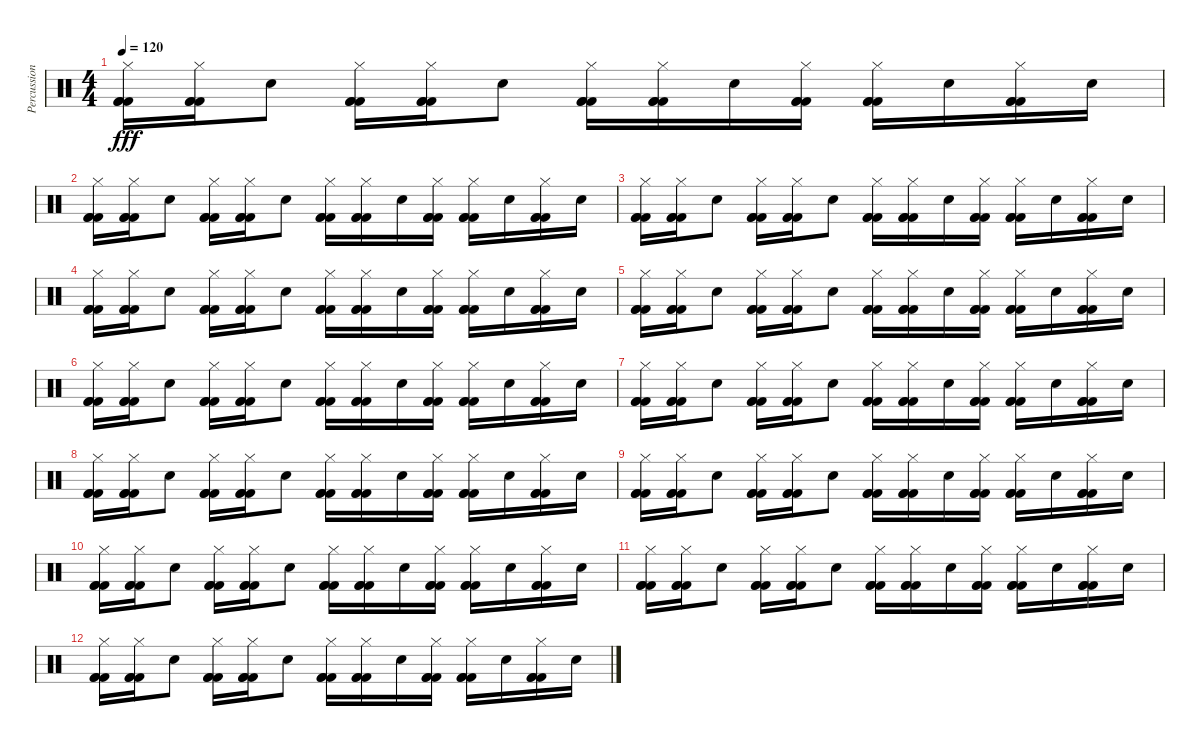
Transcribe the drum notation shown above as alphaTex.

\track ("Percussion" "Percussion") {instrument percussion}
\staff {score}
\articulation defaults
\ts (4 4)
\tempo 120
\clef neutral
\ks c
("Kick (hit) 2" "Kick (hit) 2" "Hi-Hat (closed)" "Kick (hit) 2").16{dy fff} ("Kick (hit) 2" "Kick (hit) 2" "Hi-Hat (closed)" "Kick (hit) 2").16 "Snare (hit) 2".8 ("Kick (hit) 2" "Kick (hit) 2" "Hi-Hat (closed)" "Kick (hit) 2").16 ("Kick (hit) 2" "Kick (hit) 2" "Hi-Hat (closed)" "Kick (hit) 2").16 "Snare (hit) 2".8 ("Kick (hit) 2" "Kick (hit) 2" "Hi-Hat (closed)" "Kick (hit) 2").16 ("Kick (hit) 2" "Kick (hit) 2" "Hi-Hat (closed)" "Kick (hit) 2").16 "Snare (hit) 2".16 ("Kick (hit) 2" "Kick (hit) 2" "Hi-Hat (closed)" "Kick (hit) 2").16 ("Kick (hit) 2" "Kick (hit) 2" "Hi-Hat (closed)" "Kick (hit) 2").16 "Snare (hit) 2".16 ("Kick (hit) 2" "Kick (hit) 2" "Hi-Hat (closed)" "Kick (hit) 2").16 "Snare (hit) 2".16 |
("Kick (hit) 2" "Kick (hit) 2" "Hi-Hat (closed)" "Kick (hit) 2").16 ("Kick (hit) 2" "Kick (hit) 2" "Hi-Hat (closed)" "Kick (hit) 2").16 "Snare (hit) 2".8 ("Kick (hit) 2" "Kick (hit) 2" "Hi-Hat (closed)" "Kick (hit) 2").16 ("Kick (hit) 2" "Kick (hit) 2" "Hi-Hat (closed)" "Kick (hit) 2").16 "Snare (hit) 2".8 ("Kick (hit) 2" "Kick (hit) 2" "Hi-Hat (closed)" "Kick (hit) 2").16 ("Kick (hit) 2" "Kick (hit) 2" "Hi-Hat (closed)" "Kick (hit) 2").16 "Snare (hit) 2".16 ("Kick (hit) 2" "Kick (hit) 2" "Hi-Hat (closed)" "Kick (hit) 2").16 ("Kick (hit) 2" "Kick (hit) 2" "Hi-Hat (closed)" "Kick (hit) 2").16 "Snare (hit) 2".16 ("Kick (hit) 2" "Kick (hit) 2" "Hi-Hat (closed)" "Kick (hit) 2").16 "Snare (hit) 2".16 |
("Kick (hit) 2" "Kick (hit) 2" "Hi-Hat (closed)" "Kick (hit) 2").16 ("Kick (hit) 2" "Kick (hit) 2" "Hi-Hat (closed)" "Kick (hit) 2").16 "Snare (hit) 2".8 ("Kick (hit) 2" "Kick (hit) 2" "Hi-Hat (closed)" "Kick (hit) 2").16 ("Kick (hit) 2" "Kick (hit) 2" "Hi-Hat (closed)" "Kick (hit) 2").16 "Snare (hit) 2".8 ("Kick (hit) 2" "Kick (hit) 2" "Hi-Hat (closed)" "Kick (hit) 2").16 ("Kick (hit) 2" "Kick (hit) 2" "Hi-Hat (closed)" "Kick (hit) 2").16 "Snare (hit) 2".16 ("Kick (hit) 2" "Kick (hit) 2" "Hi-Hat (closed)" "Kick (hit) 2").16 ("Kick (hit) 2" "Kick (hit) 2" "Hi-Hat (closed)" "Kick (hit) 2").16 "Snare (hit) 2".16 ("Kick (hit) 2" "Kick (hit) 2" "Hi-Hat (closed)" "Kick (hit) 2").16 "Snare (hit) 2".16 |
("Kick (hit) 2" "Kick (hit) 2" "Hi-Hat (closed)" "Kick (hit) 2").16 ("Kick (hit) 2" "Kick (hit) 2" "Hi-Hat (closed)" "Kick (hit) 2").16 "Snare (hit) 2".8 ("Kick (hit) 2" "Kick (hit) 2" "Hi-Hat (closed)" "Kick (hit) 2").16 ("Kick (hit) 2" "Kick (hit) 2" "Hi-Hat (closed)" "Kick (hit) 2").16 "Snare (hit) 2".8 ("Kick (hit) 2" "Kick (hit) 2" "Hi-Hat (closed)" "Kick (hit) 2").16 ("Kick (hit) 2" "Kick (hit) 2" "Hi-Hat (closed)" "Kick (hit) 2").16 "Snare (hit) 2".16 ("Kick (hit) 2" "Kick (hit) 2" "Hi-Hat (closed)" "Kick (hit) 2").16 ("Kick (hit) 2" "Kick (hit) 2" "Hi-Hat (closed)" "Kick (hit) 2").16 "Snare (hit) 2".16 ("Kick (hit) 2" "Kick (hit) 2" "Hi-Hat (closed)" "Kick (hit) 2").16 "Snare (hit) 2".16 |
("Kick (hit) 2" "Kick (hit) 2" "Hi-Hat (closed)" "Kick (hit) 2").16 ("Kick (hit) 2" "Kick (hit) 2" "Hi-Hat (closed)" "Kick (hit) 2").16 "Snare (hit) 2".8 ("Kick (hit) 2" "Kick (hit) 2" "Hi-Hat (closed)" "Kick (hit) 2").16 ("Kick (hit) 2" "Kick (hit) 2" "Hi-Hat (closed)" "Kick (hit) 2").16 "Snare (hit) 2".8 ("Kick (hit) 2" "Kick (hit) 2" "Hi-Hat (closed)" "Kick (hit) 2").16 ("Kick (hit) 2" "Kick (hit) 2" "Hi-Hat (closed)" "Kick (hit) 2").16 "Snare (hit) 2".16 ("Kick (hit) 2" "Kick (hit) 2" "Hi-Hat (closed)" "Kick (hit) 2").16 ("Kick (hit) 2" "Kick (hit) 2" "Hi-Hat (closed)" "Kick (hit) 2").16 "Snare (hit) 2".16 ("Kick (hit) 2" "Kick (hit) 2" "Hi-Hat (closed)" "Kick (hit) 2").16 "Snare (hit) 2".16 |
("Kick (hit) 2" "Kick (hit) 2" "Hi-Hat (closed)" "Kick (hit) 2").16 ("Kick (hit) 2" "Kick (hit) 2" "Hi-Hat (closed)" "Kick (hit) 2").16 "Snare (hit) 2".8 ("Kick (hit) 2" "Kick (hit) 2" "Hi-Hat (closed)" "Kick (hit) 2").16 ("Kick (hit) 2" "Kick (hit) 2" "Hi-Hat (closed)" "Kick (hit) 2").16 "Snare (hit) 2".8 ("Kick (hit) 2" "Kick (hit) 2" "Hi-Hat (closed)" "Kick (hit) 2").16 ("Kick (hit) 2" "Kick (hit) 2" "Hi-Hat (closed)" "Kick (hit) 2").16 "Snare (hit) 2".16 ("Kick (hit) 2" "Kick (hit) 2" "Hi-Hat (closed)" "Kick (hit) 2").16 ("Kick (hit) 2" "Kick (hit) 2" "Hi-Hat (closed)" "Kick (hit) 2").16 "Snare (hit) 2".16 ("Kick (hit) 2" "Kick (hit) 2" "Hi-Hat (closed)" "Kick (hit) 2").16 "Snare (hit) 2".16 |
("Kick (hit) 2" "Kick (hit) 2" "Hi-Hat (closed)" "Kick (hit) 2").16 ("Kick (hit) 2" "Kick (hit) 2" "Hi-Hat (closed)" "Kick (hit) 2").16 "Snare (hit) 2".8 ("Kick (hit) 2" "Kick (hit) 2" "Hi-Hat (closed)" "Kick (hit) 2").16 ("Kick (hit) 2" "Kick (hit) 2" "Hi-Hat (closed)" "Kick (hit) 2").16 "Snare (hit) 2".8 ("Kick (hit) 2" "Kick (hit) 2" "Hi-Hat (closed)" "Kick (hit) 2").16 ("Kick (hit) 2" "Kick (hit) 2" "Hi-Hat (closed)" "Kick (hit) 2").16 "Snare (hit) 2".16 ("Kick (hit) 2" "Kick (hit) 2" "Hi-Hat (closed)" "Kick (hit) 2").16 ("Kick (hit) 2" "Kick (hit) 2" "Hi-Hat (closed)" "Kick (hit) 2").16 "Snare (hit) 2".16 ("Kick (hit) 2" "Kick (hit) 2" "Hi-Hat (closed)" "Kick (hit) 2").16 "Snare (hit) 2".16 |
("Kick (hit) 2" "Kick (hit) 2" "Hi-Hat (closed)" "Kick (hit) 2").16 ("Kick (hit) 2" "Kick (hit) 2" "Hi-Hat (closed)" "Kick (hit) 2").16 "Snare (hit) 2".8 ("Kick (hit) 2" "Kick (hit) 2" "Hi-Hat (closed)" "Kick (hit) 2").16 ("Kick (hit) 2" "Kick (hit) 2" "Hi-Hat (closed)" "Kick (hit) 2").16 "Snare (hit) 2".8 ("Kick (hit) 2" "Kick (hit) 2" "Hi-Hat (closed)" "Kick (hit) 2").16 ("Kick (hit) 2" "Kick (hit) 2" "Hi-Hat (closed)" "Kick (hit) 2").16 "Snare (hit) 2".16 ("Kick (hit) 2" "Kick (hit) 2" "Hi-Hat (closed)" "Kick (hit) 2").16 ("Kick (hit) 2" "Kick (hit) 2" "Hi-Hat (closed)" "Kick (hit) 2").16 "Snare (hit) 2".16 ("Kick (hit) 2" "Kick (hit) 2" "Hi-Hat (closed)" "Kick (hit) 2").16 "Snare (hit) 2".16 |
("Kick (hit) 2" "Kick (hit) 2" "Hi-Hat (closed)" "Kick (hit) 2").16 ("Kick (hit) 2" "Kick (hit) 2" "Hi-Hat (closed)" "Kick (hit) 2").16 "Snare (hit) 2".8 ("Kick (hit) 2" "Kick (hit) 2" "Hi-Hat (closed)" "Kick (hit) 2").16 ("Kick (hit) 2" "Kick (hit) 2" "Hi-Hat (closed)" "Kick (hit) 2").16 "Snare (hit) 2".8 ("Kick (hit) 2" "Kick (hit) 2" "Hi-Hat (closed)" "Kick (hit) 2").16 ("Kick (hit) 2" "Kick (hit) 2" "Hi-Hat (closed)" "Kick (hit) 2").16 "Snare (hit) 2".16 ("Kick (hit) 2" "Kick (hit) 2" "Hi-Hat (closed)" "Kick (hit) 2").16 ("Kick (hit) 2" "Kick (hit) 2" "Hi-Hat (closed)" "Kick (hit) 2").16 "Snare (hit) 2".16 ("Kick (hit) 2" "Kick (hit) 2" "Hi-Hat (closed)" "Kick (hit) 2").16 "Snare (hit) 2".16 |
("Kick (hit) 2" "Kick (hit) 2" "Hi-Hat (closed)" "Kick (hit) 2").16 ("Kick (hit) 2" "Kick (hit) 2" "Hi-Hat (closed)" "Kick (hit) 2").16 "Snare (hit) 2".8 ("Kick (hit) 2" "Kick (hit) 2" "Hi-Hat (closed)" "Kick (hit) 2").16 ("Kick (hit) 2" "Kick (hit) 2" "Hi-Hat (closed)" "Kick (hit) 2").16 "Snare (hit) 2".8 ("Kick (hit) 2" "Kick (hit) 2" "Hi-Hat (closed)" "Kick (hit) 2").16 ("Kick (hit) 2" "Kick (hit) 2" "Hi-Hat (closed)" "Kick (hit) 2").16 "Snare (hit) 2".16 ("Kick (hit) 2" "Kick (hit) 2" "Hi-Hat (closed)" "Kick (hit) 2").16 ("Kick (hit) 2" "Kick (hit) 2" "Hi-Hat (closed)" "Kick (hit) 2").16 "Snare (hit) 2".16 ("Kick (hit) 2" "Kick (hit) 2" "Hi-Hat (closed)" "Kick (hit) 2").16 "Snare (hit) 2".16 |
("Kick (hit) 2" "Kick (hit) 2" "Hi-Hat (closed)" "Kick (hit) 2").16 ("Kick (hit) 2" "Kick (hit) 2" "Hi-Hat (closed)" "Kick (hit) 2").16 "Snare (hit) 2".8 ("Kick (hit) 2" "Kick (hit) 2" "Hi-Hat (closed)" "Kick (hit) 2").16 ("Kick (hit) 2" "Kick (hit) 2" "Hi-Hat (closed)" "Kick (hit) 2").16 "Snare (hit) 2".8 ("Kick (hit) 2" "Kick (hit) 2" "Hi-Hat (closed)" "Kick (hit) 2").16 ("Kick (hit) 2" "Kick (hit) 2" "Hi-Hat (closed)" "Kick (hit) 2").16 "Snare (hit) 2".16 ("Kick (hit) 2" "Kick (hit) 2" "Hi-Hat (closed)" "Kick (hit) 2").16 ("Kick (hit) 2" "Kick (hit) 2" "Hi-Hat (closed)" "Kick (hit) 2").16 "Snare (hit) 2".16 ("Kick (hit) 2" "Kick (hit) 2" "Hi-Hat (closed)" "Kick (hit) 2").16 "Snare (hit) 2".16 |
("Kick (hit) 2" "Kick (hit) 2" "Hi-Hat (closed)" "Kick (hit) 2").16 ("Kick (hit) 2" "Kick (hit) 2" "Hi-Hat (closed)" "Kick (hit) 2").16 "Snare (hit) 2".8 ("Kick (hit) 2" "Kick (hit) 2" "Hi-Hat (closed)" "Kick (hit) 2").16 ("Kick (hit) 2" "Kick (hit) 2" "Hi-Hat (closed)" "Kick (hit) 2").16 "Snare (hit) 2".8 ("Kick (hit) 2" "Kick (hit) 2" "Hi-Hat (closed)" "Kick (hit) 2").16 ("Kick (hit) 2" "Kick (hit) 2" "Hi-Hat (closed)" "Kick (hit) 2").16 "Snare (hit) 2".16 ("Kick (hit) 2" "Kick (hit) 2" "Hi-Hat (closed)" "Kick (hit) 2").16 ("Kick (hit) 2" "Kick (hit) 2" "Hi-Hat (closed)" "Kick (hit) 2").16 "Snare (hit) 2".16 ("Kick (hit) 2" "Kick (hit) 2" "Hi-Hat (closed)" "Kick (hit) 2").16 "Snare (hit) 2".16
